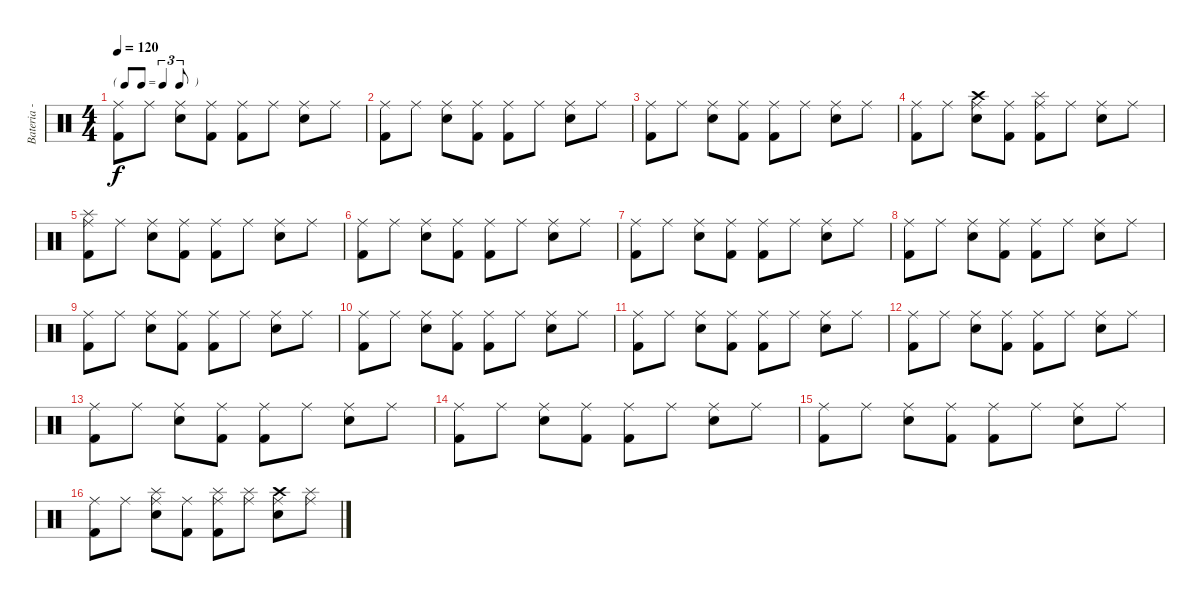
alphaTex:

\track ("Bateria - Cris Layton" "Bateria - ") {instrument percussion}
\staff {score}
\articulation defaults
\ts (4 4)
\tf triplet8th
\tempo 120
\clef neutral
\ks c
("Ride (middle)" "Kick (hit) 2").8{dy f} "Ride (middle)".8 ("Ride (middle)" "Electric Snare (hit)").8 ("Ride (middle)" "Kick (hit) 2").8 ("Ride (middle)" "Kick (hit) 2").8 "Ride (middle)".8 ("Ride (middle)" "Electric Snare (hit)").8 "Ride (middle)".8 |
("Ride (middle)" "Kick (hit) 2").8 "Ride (middle)".8 ("Ride (middle)" "Electric Snare (hit)").8 ("Ride (middle)" "Kick (hit) 2").8 ("Ride (middle)" "Kick (hit) 2").8 "Ride (middle)".8 ("Ride (middle)" "Electric Snare (hit)").8 "Ride (middle)".8 |
("Ride (middle)" "Kick (hit) 2").8 "Ride (middle)".8 ("Ride (middle)" "Electric Snare (hit)").8 ("Ride (middle)" "Kick (hit) 2").8 ("Ride (middle)" "Kick (hit) 2").8 "Ride (middle)".8 ("Ride (middle)" "Electric Snare (hit)").8 "Ride (middle)".8 |
("Ride (middle)" "Kick (hit) 2").8 "Ride (middle)".8 ("Ride (middle)" "Electric Snare (hit)" "Crash high (hit)").8 ("Ride (middle)" "Kick (hit) 2").8 ("Ride (middle)" "Kick (hit) 2" "Splash (hit)").8 "Ride (middle)".8 ("Ride (middle)" "Electric Snare (hit)").8 "Ride (middle)".8 |
("Ride (middle)" "Kick (hit) 2" "Splash (hit)").8 "Ride (middle)".8 ("Ride (middle)" "Electric Snare (hit)").8 ("Ride (middle)" "Kick (hit) 2").8 ("Ride (middle)" "Kick (hit) 2").8 "Ride (middle)".8 ("Ride (middle)" "Electric Snare (hit)").8 "Ride (middle)".8 |
("Ride (middle)" "Kick (hit) 2").8 "Ride (middle)".8 ("Ride (middle)" "Electric Snare (hit)").8 ("Ride (middle)" "Kick (hit) 2").8 ("Ride (middle)" "Kick (hit) 2").8 "Ride (middle)".8 ("Ride (middle)" "Electric Snare (hit)").8 "Ride (middle)".8 |
("Ride (middle)" "Kick (hit) 2").8 "Ride (middle)".8 ("Ride (middle)" "Electric Snare (hit)").8 ("Ride (middle)" "Kick (hit) 2").8 ("Ride (middle)" "Kick (hit) 2").8 "Ride (middle)".8 ("Ride (middle)" "Electric Snare (hit)").8 "Ride (middle)".8 |
("Ride (middle)" "Kick (hit) 2").8 "Ride (middle)".8 ("Ride (middle)" "Electric Snare (hit)").8 ("Ride (middle)" "Kick (hit) 2").8 ("Ride (middle)" "Kick (hit) 2").8 "Ride (middle)".8 ("Ride (middle)" "Electric Snare (hit)").8 "Ride (middle)".8 |
("Ride (middle)" "Kick (hit) 2").8 "Ride (middle)".8 ("Ride (middle)" "Electric Snare (hit)").8 ("Ride (middle)" "Kick (hit) 2").8 ("Ride (middle)" "Kick (hit) 2").8 "Ride (middle)".8 ("Ride (middle)" "Electric Snare (hit)").8 "Ride (middle)".8 |
("Ride (middle)" "Kick (hit) 2").8 "Ride (middle)".8 ("Ride (middle)" "Electric Snare (hit)").8 ("Ride (middle)" "Kick (hit) 2").8 ("Ride (middle)" "Kick (hit) 2").8 "Ride (middle)".8 ("Ride (middle)" "Electric Snare (hit)").8 "Ride (middle)".8 |
("Ride (middle)" "Kick (hit) 2").8 "Ride (middle)".8 ("Ride (middle)" "Electric Snare (hit)").8 ("Ride (middle)" "Kick (hit) 2").8 ("Ride (middle)" "Kick (hit) 2").8 "Ride (middle)".8 ("Ride (middle)" "Electric Snare (hit)").8 "Ride (middle)".8 |
("Ride (middle)" "Kick (hit) 2").8 "Ride (middle)".8 ("Ride (middle)" "Electric Snare (hit)").8 ("Ride (middle)" "Kick (hit) 2").8 ("Ride (middle)" "Kick (hit) 2").8 "Ride (middle)".8 ("Ride (middle)" "Electric Snare (hit)").8 "Ride (middle)".8 |
("Ride (middle)" "Kick (hit) 2").8 "Ride (middle)".8 ("Ride (middle)" "Electric Snare (hit)").8 ("Ride (middle)" "Kick (hit) 2").8 ("Ride (middle)" "Kick (hit) 2").8 "Ride (middle)".8 ("Ride (middle)" "Electric Snare (hit)").8 "Ride (middle)".8 |
("Ride (middle)" "Kick (hit) 2").8 "Ride (middle)".8 ("Ride (middle)" "Electric Snare (hit)").8 ("Ride (middle)" "Kick (hit) 2").8 ("Ride (middle)" "Kick (hit) 2").8 "Ride (middle)".8 ("Ride (middle)" "Electric Snare (hit)").8 "Ride (middle)".8 |
("Ride (middle)" "Kick (hit) 2").8 "Ride (middle)".8 ("Ride (middle)" "Electric Snare (hit)").8 ("Ride (middle)" "Kick (hit) 2").8 ("Ride (middle)" "Kick (hit) 2").8 "Ride (middle)".8 ("Ride (middle)" "Electric Snare (hit)").8 "Ride (middle)".8 |
("Ride (middle)" "Kick (hit) 2").8 "Ride (middle)".8 ("Ride (middle)" "Electric Snare (hit)" "Splash (hit)").8 ("Ride (middle)" "Kick (hit) 2").8 ("Ride (middle)" "Kick (hit) 2" "Splash (hit)").8 ("Ride (middle)" "Splash (hit)").8 ("Ride (middle)" "Electric Snare (hit)" "Crash high (hit)").8 ("Ride (middle)" "Splash (hit)").8
